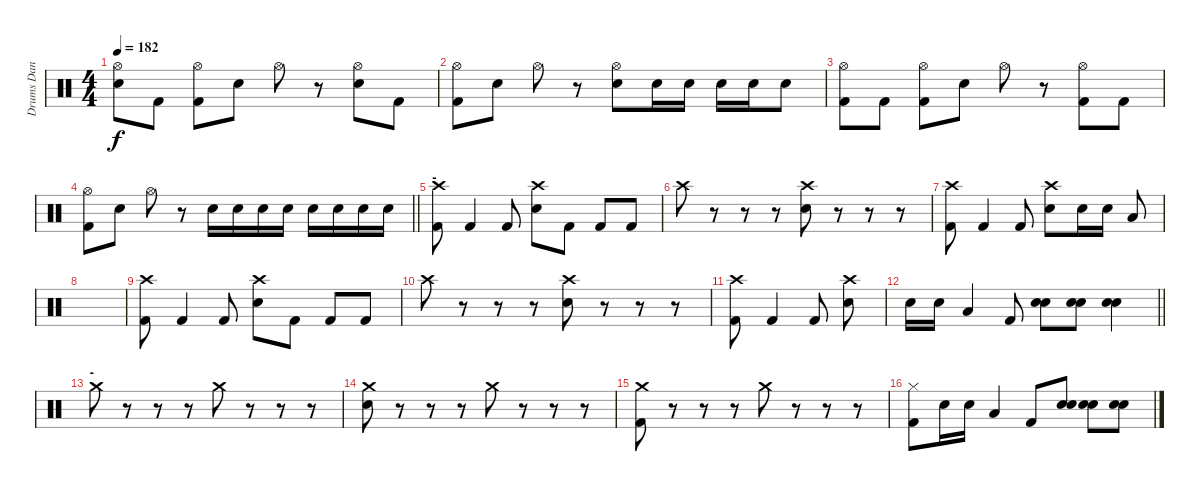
\track ("Drums Dan Searle" "Drums Dan ") {instrument percussion}
\staff {score}
\articulation defaults
\ts (4 4)
\tempo 182
\clef neutral
\ks c
("Hi-Hat (open)" "Electric Snare (hit)").8{dy f} "Kick (hit) 2".8 ("Hi-Hat (open)" "Kick (hit) 2").8 "Electric Snare (hit)".8 "Hi-Hat (open)".8 r.8 ("Hi-Hat (open)" "Electric Snare (hit)").8 "Kick (hit) 2".8 |
("Hi-Hat (open)" "Kick (hit) 2").8 "Electric Snare (hit)".8 "Hi-Hat (open)".8 r.8 ("Hi-Hat (open)" "Electric Snare (hit)").8 "Electric Snare (hit)".16 "Electric Snare (hit)".16 "Electric Snare (hit)".16 "Electric Snare (hit)".16 "Electric Snare (hit)".8 |
("Hi-Hat (open)" "Kick (hit) 2").8 "Kick (hit) 2".8 ("Hi-Hat (open)" "Kick (hit) 2").8 "Electric Snare (hit)".8 "Hi-Hat (open)".8 r.8 ("Hi-Hat (open)" "Kick (hit) 2").8 "Kick (hit) 2".8 |
\barLineRight lightlight
("Hi-Hat (open)" "Kick (hit) 2").8 "Electric Snare (hit)".8 "Hi-Hat (open)".8 r.8 "Electric Snare (hit)".16 "Electric Snare (hit)".16 "Electric Snare (hit)".16 "Electric Snare (hit)".16 "Electric Snare (hit)".16 "Electric Snare (hit)".16 "Electric Snare (hit)".16 "Electric Snare (hit)".16 |
\section ("" "-")
("Crash high (hit)" "Kick (hit) 2").8 "Kick (hit) 2".4 "Kick (hit) 2".8 ("Crash high (hit)" "Electric Snare (hit)").8 "Kick (hit) 2".8 "Kick (hit) 2".8 "Kick (hit) 2".8 |
"Crash high (hit)".8 r.8 r.8 r.8 ("Crash high (hit)" "Electric Snare (hit)").8 r.8 r.8 r.8 |
("Crash high (hit)" "Kick (hit) 2").8 "Kick (hit) 2".4 "Kick (hit) 2".8 ("Crash high (hit)" "Electric Snare (hit)").8 "Electric Snare (hit)".16 "Electric Snare (hit)".16 "Low Tom (hit)".8 |
|
("Crash high (hit)" "Kick (hit) 2").8 "Kick (hit) 2".4 "Kick (hit) 2".8 ("Crash high (hit)" "Electric Snare (hit)").8 "Kick (hit) 2".8 "Kick (hit) 2".8 "Kick (hit) 2".8 |
"Crash high (hit)".8 r.8 r.8 r.8 ("Crash high (hit)" "Electric Snare (hit)").8 r.8 r.8 r.8 |
("Crash high (hit)" "Kick (hit) 2").8 "Kick (hit) 2".4 "Kick (hit) 2".8 ("Crash high (hit)" "Electric Snare (hit)").8 |
\barLineRight lightlight "Electric Snare (hit)".16 "Electric Snare (hit)".16 "Low Tom (hit)".4 "Kick (hit) 2".8
("Electric Snare (hit)" "Electric Snare (hit)").8 ("Electric Snare (hit)" "Electric Snare (hit)").8 ("Electric Snare (hit)" "Electric Snare (hit)").4 |
\section ("" "-")
"Crash medium (hit)".8 r.8 r.8 r.8 "Crash medium (hit)".8 r.8 r.8 r.8 |
("Crash medium (hit)" "Electric Snare (hit)").8 r.8 r.8 r.8 "Crash medium (hit)".8 r.8 r.8 r.8 |
("Crash medium (hit)" "Kick (hit) 2").8 r.8 r.8 r.8 "Crash medium (hit)".8 r.8 r.8 r.8 |
("Hi-Hat (closed)" "Kick (hit) 2").8 "Electric Snare (hit)".16 "Electric Snare (hit)".16 "Low Tom (hit)".4 "Kick (hit) 2".8 ("Electric Snare (hit)" "Electric Snare (hit)").8 ("Electric Snare (hit)" "Electric Snare (hit)").8 ("Electric Snare (hit)" "Electric Snare (hit)").8
